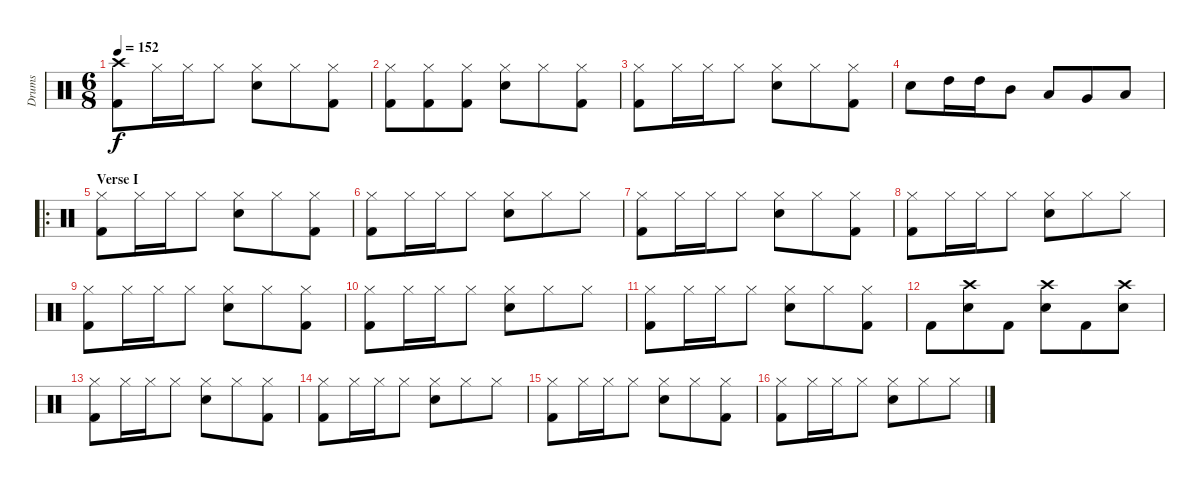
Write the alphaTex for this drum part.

\track ("Drums" "Drums") {instrument percussion}
\staff {score}
\articulation defaults
\ts (6 8)
\tempo 152
\clef neutral
\ks c
("Crash high (hit)" "Kick (hit) 2").8{dy f} "Hi-Hat (closed)".16 "Hi-Hat (closed)".16 "Hi-Hat (closed)".8 ("Electric Snare (hit)" "Hi-Hat (closed)").8 "Hi-Hat (closed)".8 ("Hi-Hat (closed)" "Kick (hit) 2").8 |
("Hi-Hat (closed)" "Kick (hit) 2").8 ("Hi-Hat (closed)" "Kick (hit) 2").8 ("Hi-Hat (closed)" "Kick (hit) 2").8 ("Electric Snare (hit)" "Hi-Hat (closed)").8 "Hi-Hat (closed)".8 ("Hi-Hat (closed)" "Kick (hit) 2").8 |
("Hi-Hat (closed)" "Kick (hit) 2").8 "Hi-Hat (closed)".16 "Hi-Hat (closed)".16 "Hi-Hat (closed)".8 ("Electric Snare (hit)" "Hi-Hat (closed)").8 "Hi-Hat (closed)".8 ("Hi-Hat (closed)" "Kick (hit) 2").8 |
"Electric Snare (hit)".8 "High Tom (hit)".16 "High Tom (hit)".16 "Mid Tom (hit)".8 "Low Tom (hit)".8 "Very Low Tom (hit)".8 "Low Floor Tom (hit)".8 |
\ro
\section ("" "Verse I")
("Hi-Hat (closed)" "Kick (hit) 2").8 "Hi-Hat (closed)".16 "Hi-Hat (closed)".16 "Hi-Hat (closed)".8 ("Electric Snare (hit)" "Hi-Hat (closed)").8 "Hi-Hat (closed)".8 ("Hi-Hat (closed)" "Kick (hit) 2").8 |
("Hi-Hat (closed)" "Kick (hit) 2").8 "Hi-Hat (closed)".16 "Hi-Hat (closed)".16 "Hi-Hat (closed)".8 ("Electric Snare (hit)" "Hi-Hat (closed)").8 "Hi-Hat (closed)".8 "Hi-Hat (closed)".8 |
("Hi-Hat (closed)" "Kick (hit) 2").8 "Hi-Hat (closed)".16 "Hi-Hat (closed)".16 "Hi-Hat (closed)".8 ("Electric Snare (hit)" "Hi-Hat (closed)").8 "Hi-Hat (closed)".8 ("Hi-Hat (closed)" "Kick (hit) 2").8 |
("Hi-Hat (closed)" "Kick (hit) 2").8 "Hi-Hat (closed)".16 "Hi-Hat (closed)".16 "Hi-Hat (closed)".8 ("Electric Snare (hit)" "Hi-Hat (closed)").8 "Hi-Hat (closed)".8 "Hi-Hat (closed)".8 |
("Hi-Hat (closed)" "Kick (hit) 2").8 "Hi-Hat (closed)".16 "Hi-Hat (closed)".16 "Hi-Hat (closed)".8 ("Electric Snare (hit)" "Hi-Hat (closed)").8 "Hi-Hat (closed)".8 ("Hi-Hat (closed)" "Kick (hit) 2").8 |
("Hi-Hat (closed)" "Kick (hit) 2").8 "Hi-Hat (closed)".16 "Hi-Hat (closed)".16 "Hi-Hat (closed)".8 ("Electric Snare (hit)" "Hi-Hat (closed)").8 "Hi-Hat (closed)".8 "Hi-Hat (closed)".8 |
("Hi-Hat (closed)" "Kick (hit) 2").8 "Hi-Hat (closed)".16 "Hi-Hat (closed)".16 "Hi-Hat (closed)".8 ("Electric Snare (hit)" "Hi-Hat (closed)").8 "Hi-Hat (closed)".8 ("Hi-Hat (closed)" "Kick (hit) 2").8 |
"Kick (hit) 2".8 ("Crash high (hit)" "Electric Snare (hit)").8 "Kick (hit) 2".8 ("Crash high (hit)" "Electric Snare (hit)").8 "Kick (hit) 2".8 ("Crash high (hit)" "Electric Snare (hit)").8 |
("Hi-Hat (closed)" "Kick (hit) 2").8 "Hi-Hat (closed)".16 "Hi-Hat (closed)".16 "Hi-Hat (closed)".8 ("Electric Snare (hit)" "Hi-Hat (closed)").8 "Hi-Hat (closed)".8 ("Hi-Hat (closed)" "Kick (hit) 2").8 |
("Hi-Hat (closed)" "Kick (hit) 2").8 "Hi-Hat (closed)".16 "Hi-Hat (closed)".16 "Hi-Hat (closed)".8 ("Electric Snare (hit)" "Hi-Hat (closed)").8 "Hi-Hat (closed)".8 "Hi-Hat (closed)".8 |
("Hi-Hat (closed)" "Kick (hit) 2").8 "Hi-Hat (closed)".16 "Hi-Hat (closed)".16 "Hi-Hat (closed)".8 ("Electric Snare (hit)" "Hi-Hat (closed)").8 "Hi-Hat (closed)".8 ("Hi-Hat (closed)" "Kick (hit) 2").8 |
("Hi-Hat (closed)" "Kick (hit) 2").8 "Hi-Hat (closed)".16 "Hi-Hat (closed)".16 "Hi-Hat (closed)".8 ("Electric Snare (hit)" "Hi-Hat (closed)").8 "Hi-Hat (closed)".8 "Hi-Hat (closed)".8
